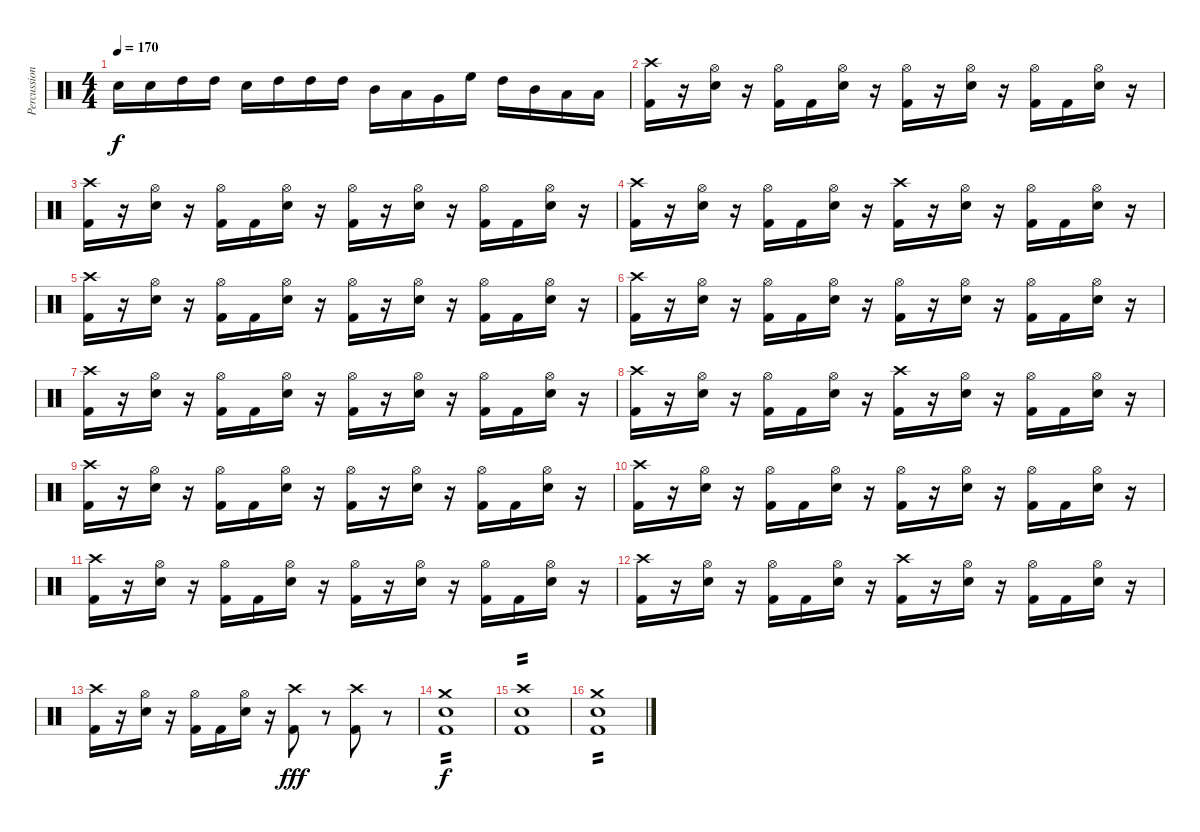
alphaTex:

\track ("Percussion" "Percussion") {instrument percussion}
\staff {score}
\articulation defaults
\ts (4 4)
\tempo 170
\clef neutral
\ks c "Electric Snare (hit)".16{dy f} "Electric Snare (hit)".16 "High Tom (hit)".16 "High Tom (hit)".16 "Electric Snare (hit)".16 "High Tom (hit)".16 "High Tom (hit)".16 "High Tom (hit)".16 "Mid Tom (hit)".16 "Low Tom (hit)".16 "Very Low Tom (hit)".16 "High Floor Tom (hit)".16 "High Tom (hit)".16 "Mid Tom (hit)".16 "Low Tom (hit)".16 "Low Tom (hit)".16
|
("Crash high (hit)" "Kick (hit) 2").16 r.16 ("Hi-Hat (open)" "Electric Snare (hit)").16 r.16 ("Hi-Hat (open)" "Kick (hit) 2").16 "Kick (hit) 2".16 ("Hi-Hat (open)" "Electric Snare (hit)").16 r.16 ("Hi-Hat (open)" "Kick (hit) 2").16 r.16 ("Hi-Hat (open)" "Electric Snare (hit)").16 r.16 ("Hi-Hat (open)" "Kick (hit) 2").16 "Kick (hit) 2".16 ("Hi-Hat (open)" "Electric Snare (hit)").16 r.16 |
("Crash high (hit)" "Kick (hit) 2").16 r.16 ("Hi-Hat (open)" "Electric Snare (hit)").16 r.16 ("Hi-Hat (open)" "Kick (hit) 2").16 "Kick (hit) 2".16 ("Hi-Hat (open)" "Electric Snare (hit)").16 r.16 ("Hi-Hat (open)" "Kick (hit) 2").16 r.16 ("Hi-Hat (open)" "Electric Snare (hit)").16 r.16 ("Hi-Hat (open)" "Kick (hit) 2").16 "Kick (hit) 2".16 ("Hi-Hat (open)" "Electric Snare (hit)").16 r.16 |
("Crash high (hit)" "Kick (hit) 2").16 r.16 ("Hi-Hat (open)" "Electric Snare (hit)").16 r.16 ("Hi-Hat (open)" "Kick (hit) 2").16 "Kick (hit) 2".16 ("Hi-Hat (open)" "Electric Snare (hit)").16 r.16 ("Crash high (hit)" "Kick (hit) 2").16 r.16 ("Hi-Hat (open)" "Electric Snare (hit)").16 r.16 ("Hi-Hat (open)" "Kick (hit) 2").16 "Kick (hit) 2".16 ("Hi-Hat (open)" "Electric Snare (hit)").16 r.16 |
("Crash high (hit)" "Kick (hit) 2").16 r.16 ("Hi-Hat (open)" "Electric Snare (hit)").16 r.16 ("Hi-Hat (open)" "Kick (hit) 2").16 "Kick (hit) 2".16 ("Hi-Hat (open)" "Electric Snare (hit)").16 r.16 ("Hi-Hat (open)" "Kick (hit) 2").16 r.16 ("Hi-Hat (open)" "Electric Snare (hit)").16 r.16 ("Hi-Hat (open)" "Kick (hit) 2").16 "Kick (hit) 2".16 ("Hi-Hat (open)" "Electric Snare (hit)").16 r.16 |
("Crash high (hit)" "Kick (hit) 2").16 r.16 ("Hi-Hat (open)" "Electric Snare (hit)").16 r.16 ("Hi-Hat (open)" "Kick (hit) 2").16 "Kick (hit) 2".16 ("Hi-Hat (open)" "Electric Snare (hit)").16 r.16 ("Hi-Hat (open)" "Kick (hit) 2").16 r.16 ("Hi-Hat (open)" "Electric Snare (hit)").16 r.16 ("Hi-Hat (open)" "Kick (hit) 2").16 "Kick (hit) 2".16 ("Hi-Hat (open)" "Electric Snare (hit)").16 r.16 |
("Crash high (hit)" "Kick (hit) 2").16 r.16 ("Hi-Hat (open)" "Electric Snare (hit)").16 r.16 ("Hi-Hat (open)" "Kick (hit) 2").16 "Kick (hit) 2".16 ("Hi-Hat (open)" "Electric Snare (hit)").16 r.16 ("Hi-Hat (open)" "Kick (hit) 2").16 r.16 ("Hi-Hat (open)" "Electric Snare (hit)").16 r.16 ("Hi-Hat (open)" "Kick (hit) 2").16 "Kick (hit) 2".16 ("Hi-Hat (open)" "Electric Snare (hit)").16 r.16 |
("Crash high (hit)" "Kick (hit) 2").16 r.16 ("Hi-Hat (open)" "Electric Snare (hit)").16 r.16 ("Hi-Hat (open)" "Kick (hit) 2").16 "Kick (hit) 2".16 ("Hi-Hat (open)" "Electric Snare (hit)").16 r.16 ("Crash high (hit)" "Kick (hit) 2").16 r.16 ("Hi-Hat (open)" "Electric Snare (hit)").16 r.16 ("Hi-Hat (open)" "Kick (hit) 2").16 "Kick (hit) 2".16 ("Hi-Hat (open)" "Electric Snare (hit)").16 r.16 |
("Crash high (hit)" "Kick (hit) 2").16 r.16 ("Hi-Hat (open)" "Electric Snare (hit)").16 r.16 ("Hi-Hat (open)" "Kick (hit) 2").16 "Kick (hit) 2".16 ("Hi-Hat (open)" "Electric Snare (hit)").16 r.16 ("Hi-Hat (open)" "Kick (hit) 2").16 r.16 ("Hi-Hat (open)" "Electric Snare (hit)").16 r.16 ("Hi-Hat (open)" "Kick (hit) 2").16 "Kick (hit) 2".16 ("Hi-Hat (open)" "Electric Snare (hit)").16 r.16 |
("Crash high (hit)" "Kick (hit) 2").16 r.16 ("Hi-Hat (open)" "Electric Snare (hit)").16 r.16 ("Hi-Hat (open)" "Kick (hit) 2").16 "Kick (hit) 2".16 ("Hi-Hat (open)" "Electric Snare (hit)").16 r.16 ("Hi-Hat (open)" "Kick (hit) 2").16 r.16 ("Hi-Hat (open)" "Electric Snare (hit)").16 r.16 ("Hi-Hat (open)" "Kick (hit) 2").16 "Kick (hit) 2".16 ("Hi-Hat (open)" "Electric Snare (hit)").16 r.16 |
("Crash high (hit)" "Kick (hit) 2").16 r.16 ("Hi-Hat (open)" "Electric Snare (hit)").16 r.16 ("Hi-Hat (open)" "Kick (hit) 2").16 "Kick (hit) 2".16 ("Hi-Hat (open)" "Electric Snare (hit)").16 r.16 ("Hi-Hat (open)" "Kick (hit) 2").16 r.16 ("Hi-Hat (open)" "Electric Snare (hit)").16 r.16 ("Hi-Hat (open)" "Kick (hit) 2").16 "Kick (hit) 2".16 ("Hi-Hat (open)" "Electric Snare (hit)").16 r.16 |
("Crash high (hit)" "Kick (hit) 2").16 r.16 ("Hi-Hat (open)" "Electric Snare (hit)").16 r.16 ("Hi-Hat (open)" "Kick (hit) 2").16 "Kick (hit) 2".16 ("Hi-Hat (open)" "Electric Snare (hit)").16 r.16 ("Crash high (hit)" "Kick (hit) 2").16 r.16 ("Hi-Hat (open)" "Electric Snare (hit)").16 r.16 ("Hi-Hat (open)" "Kick (hit) 2").16 "Kick (hit) 2".16 ("Hi-Hat (open)" "Electric Snare (hit)").16 r.16 |
("Crash high (hit)" "Kick (hit) 2").16 r.16 ("Hi-Hat (open)" "Electric Snare (hit)").16 r.16 ("Hi-Hat (open)" "Kick (hit) 2").16 "Kick (hit) 2".16 ("Hi-Hat (open)" "Electric Snare (hit)").16 r.16 ("Crash high (hit)" "Kick (hit) 2").8{dy fff} r.8 ("Crash high (hit)" "Kick (hit) 2").8 r.8 |
("Crash medium (hit)" "Electric Snare (hit)" "Kick (hit) 2").1{tp 2 dy f} |
("Crash high (hit)" "Electric Snare (hit)" "Kick (hit) 2").1{tp 2} |
("Crash medium (hit)" "Electric Snare (hit)" "Kick (hit) 2").1{tp 2}
